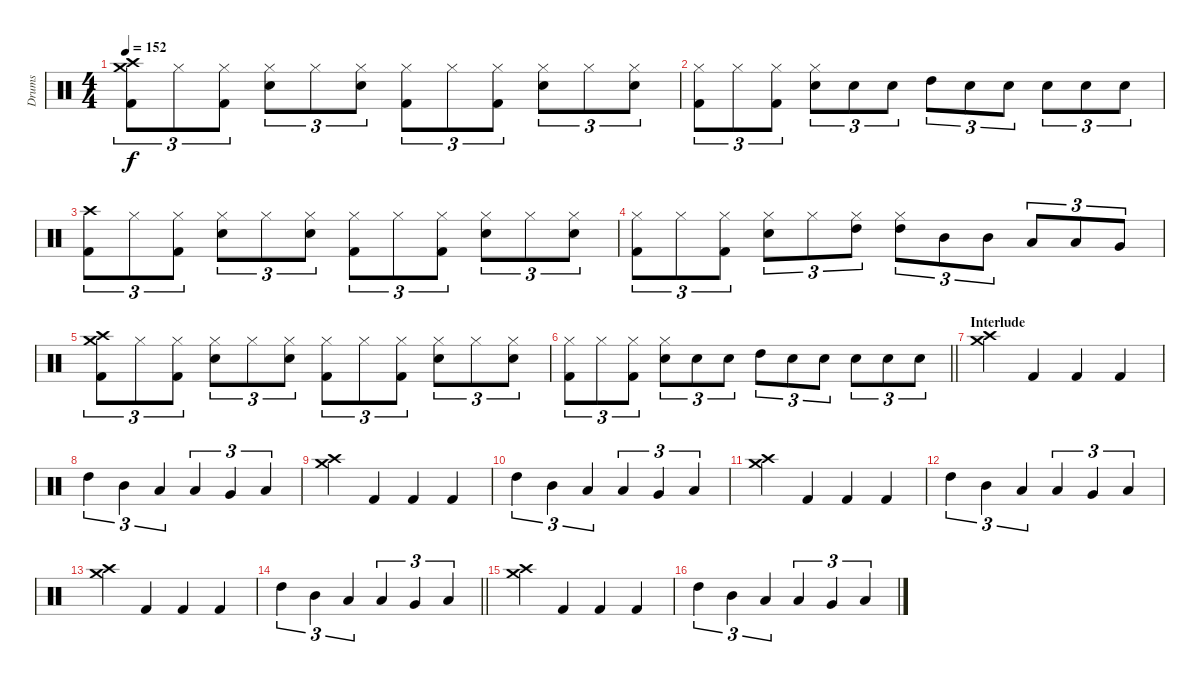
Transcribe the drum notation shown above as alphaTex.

\track ("Drums" "Drums") {instrument percussion}
\staff {score}
\articulation defaults
\ts (4 4)
\tempo 152
\clef neutral
\ks c
("Crash high (hit)" "Crash medium (hit)" "Kick (hit) 2").8{tu (3 2) dy f} "Hi-Hat (closed)".8{tu (3 2)} ("Hi-Hat (closed)" "Kick (hit) 2").8{tu (3 2)} ("Hi-Hat (closed)" "Snare (hit) 2").8{tu (3 2)} "Hi-Hat (closed)".8{tu (3 2)} ("Hi-Hat (closed)" "Snare (hit) 2").8{tu (3 2)} ("Hi-Hat (closed)" "Kick (hit) 2").8{tu (3 2)} "Hi-Hat (closed)".8{tu (3 2)} ("Hi-Hat (closed)" "Kick (hit) 2").8{tu (3 2)} ("Hi-Hat (closed)" "Snare (hit) 2").8{tu (3 2)} "Hi-Hat (closed)".8{tu (3 2)} ("Hi-Hat (closed)" "Snare (hit) 2").8{tu (3 2)} |
("Hi-Hat (closed)" "Kick (hit) 2").8{tu (3 2)} "Hi-Hat (closed)".8{tu (3 2)} ("Hi-Hat (closed)" "Kick (hit) 2").8{tu (3 2)} ("Hi-Hat (closed)" "Snare (hit) 2").8{tu (3 2)} "Snare (hit) 2".8{tu (3 2)} "Snare (hit) 2".8{tu (3 2)} "High Tom (hit)".8{tu (3 2)} "Snare (hit) 2".8{tu (3 2)} "Snare (hit) 2".8{tu (3 2)} "Snare (hit) 2".8{tu (3 2)} "Snare (hit) 2".8{tu (3 2)} "Snare (hit) 2".8{tu (3 2)} |
("Crash high (hit)" "Kick (hit) 2").8{tu (3 2)} "Hi-Hat (closed)".8{tu (3 2)} ("Hi-Hat (closed)" "Kick (hit) 2").8{tu (3 2)} ("Hi-Hat (closed)" "Snare (hit) 2").8{tu (3 2)} "Hi-Hat (closed)".8{tu (3 2)} ("Hi-Hat (closed)" "Snare (hit) 2").8{tu (3 2)} ("Hi-Hat (closed)" "Kick (hit) 2").8{tu (3 2)} "Hi-Hat (closed)".8{tu (3 2)} ("Hi-Hat (closed)" "Kick (hit) 2").8{tu (3 2)} ("Hi-Hat (closed)" "Snare (hit) 2").8{tu (3 2)} "Hi-Hat (closed)".8{tu (3 2)} ("Hi-Hat (closed)" "Snare (hit) 2").8{tu (3 2)} |
("Hi-Hat (closed)" "Kick (hit) 2").8{tu (3 2)} "Hi-Hat (closed)".8{tu (3 2)} ("Hi-Hat (closed)" "Kick (hit) 2").8{tu (3 2)} ("Hi-Hat (closed)" "Snare (hit) 2").8{tu (3 2)} "Hi-Hat (closed)".8{tu (3 2)} ("Hi-Hat (closed)" "High Tom (hit)").8{tu (3 2)} ("Hi-Hat (closed)" "High Tom (hit)").8{tu (3 2)} "Mid Tom (hit)".8{tu (3 2)} "Mid Tom (hit)".8{tu (3 2)} "Low Tom (hit)".8{tu (3 2)} "Low Tom (hit)".8{tu (3 2)} "Very Low Tom (hit)".8{tu (3 2)} |
("Crash high (hit)" "Crash medium (hit)" "Kick (hit) 2").8{tu (3 2)} "Hi-Hat (closed)".8{tu (3 2)} ("Hi-Hat (closed)" "Kick (hit) 2").8{tu (3 2)} ("Hi-Hat (closed)" "Snare (hit) 2").8{tu (3 2)} "Hi-Hat (closed)".8{tu (3 2)} ("Hi-Hat (closed)" "Snare (hit) 2").8{tu (3 2)} ("Hi-Hat (closed)" "Kick (hit) 2").8{tu (3 2)} "Hi-Hat (closed)".8{tu (3 2)} ("Hi-Hat (closed)" "Kick (hit) 2").8{tu (3 2)} ("Hi-Hat (closed)" "Snare (hit) 2").8{tu (3 2)} "Hi-Hat (closed)".8{tu (3 2)} ("Hi-Hat (closed)" "Snare (hit) 2").8{tu (3 2)} |
\barLineRight lightlight
("Hi-Hat (closed)" "Kick (hit) 2").8{tu (3 2)} "Hi-Hat (closed)".8{tu (3 2)} ("Hi-Hat (closed)" "Kick (hit) 2").8{tu (3 2)} ("Hi-Hat (closed)" "Snare (hit) 2").8{tu (3 2)} "Snare (hit) 2".8{tu (3 2)} "Snare (hit) 2".8{tu (3 2)} "High Tom (hit)".8{tu (3 2)} "Snare (hit) 2".8{tu (3 2)} "Snare (hit) 2".8{tu (3 2)} "Snare (hit) 2".8{tu (3 2)} "Snare (hit) 2".8{tu (3 2)} "Snare (hit) 2".8{tu (3 2)} |
\section ("" "Interlude")
("Crash medium (hit)" "Crash high (hit)").4 "Kick (hit) 2".4 "Kick (hit) 2".4 "Kick (hit) 2".4 |
"High Tom (hit)".4{tu (3 2)} "Mid Tom (hit)".4{tu (3 2)} "Low Tom (hit)".4{tu (3 2)} "Low Tom (hit)".4{tu (3 2)} "Very Low Tom (hit)".4{tu (3 2)} "Low Floor Tom (hit)".4{tu (3 2)} |
("Crash medium (hit)" "Crash high (hit)").4 "Kick (hit) 2".4 "Kick (hit) 2".4 "Kick (hit) 2".4 |
"High Tom (hit)".4{tu (3 2)} "Mid Tom (hit)".4{tu (3 2)} "Low Tom (hit)".4{tu (3 2)} "Low Tom (hit)".4{tu (3 2)} "Very Low Tom (hit)".4{tu (3 2)} "Low Floor Tom (hit)".4{tu (3 2)} |
("Crash medium (hit)" "Crash high (hit)").4 "Kick (hit) 2".4 "Kick (hit) 2".4 "Kick (hit) 2".4 |
"High Tom (hit)".4{tu (3 2)} "Mid Tom (hit)".4{tu (3 2)} "Low Tom (hit)".4{tu (3 2)} "Low Tom (hit)".4{tu (3 2)} "Very Low Tom (hit)".4{tu (3 2)} "Low Floor Tom (hit)".4{tu (3 2)} |
("Crash medium (hit)" "Crash high (hit)").4 "Kick (hit) 2".4 "Kick (hit) 2".4 "Kick (hit) 2".4 |
\barLineRight lightlight "High Tom (hit)".4{tu (3 2)} "Mid Tom (hit)".4{tu (3 2)} "Low Tom (hit)".4{tu (3 2)} "Low Tom (hit)".4{tu (3 2)} "Very Low Tom (hit)".4{tu (3 2)} "Low Floor Tom (hit)".4{tu (3 2)}
|
("Crash medium (hit)" "Crash high (hit)").4 "Kick (hit) 2".4 "Kick (hit) 2".4 "Kick (hit) 2".4 |
"High Tom (hit)".4{tu (3 2)} "Mid Tom (hit)".4{tu (3 2)} "Low Tom (hit)".4{tu (3 2)} "Low Tom (hit)".4{tu (3 2)} "Very Low Tom (hit)".4{tu (3 2)} "Low Floor Tom (hit)".4{tu (3 2)}
